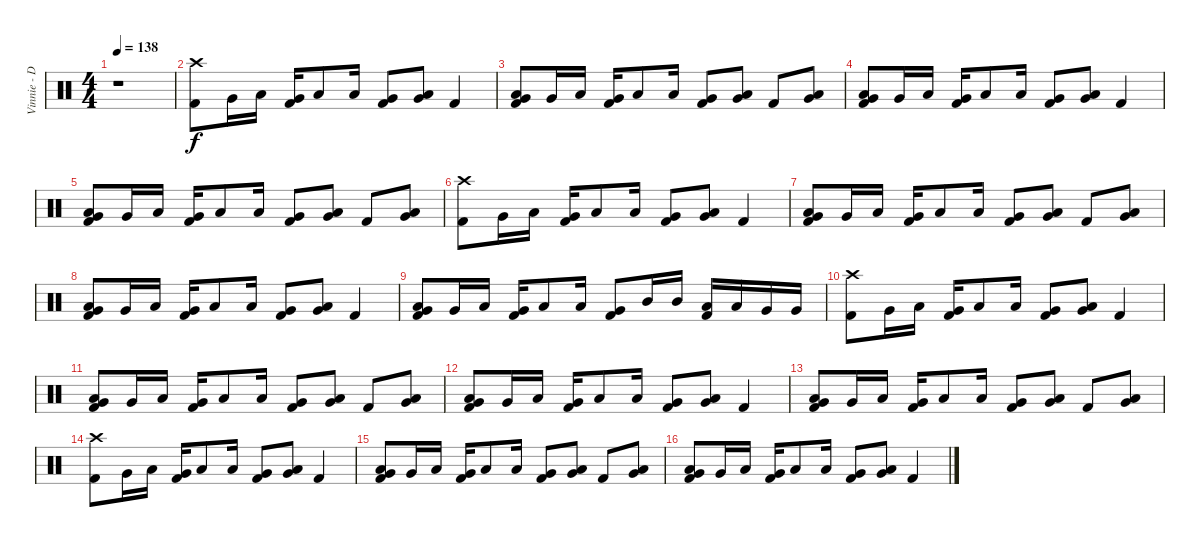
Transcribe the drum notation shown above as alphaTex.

\track ("Vinnie - Drums" "Vinnie - D") {instrument percussion}
\staff {score}
\articulation defaults
\ts (4 4)
\tempo 138
\clef neutral
\ks c
r.1{dy f} |
("Crash high (hit)" "Kick (hit) 2").8 "Very Low Tom (hit)".16 "Low Tom (hit)".16 ("Very Low Tom (hit)" "Kick (hit) 2").16 "Low Tom (hit)".8 "Low Tom (hit)".16 ("Very Low Tom (hit)" "Kick (hit) 2").8 ("Low Tom (hit)" "Very Low Tom (hit)").8 "Kick (hit) 2".4 |
("Low Tom (hit)" "Very Low Tom (hit)" "Kick (hit) 2").8 "Very Low Tom (hit)".16 "Low Tom (hit)".16 ("Very Low Tom (hit)" "Kick (hit) 2").16 "Low Tom (hit)".8 "Low Tom (hit)".16 ("Very Low Tom (hit)" "Kick (hit) 2").8 ("Low Tom (hit)" "Very Low Tom (hit)").8 "Kick (hit) 2".8 ("Low Tom (hit)" "Very Low Tom (hit)").8 |
("Low Tom (hit)" "Very Low Tom (hit)" "Kick (hit) 2").8 "Very Low Tom (hit)".16 "Low Tom (hit)".16 ("Very Low Tom (hit)" "Kick (hit) 2").16 "Low Tom (hit)".8 "Low Tom (hit)".16 ("Very Low Tom (hit)" "Kick (hit) 2").8 ("Low Tom (hit)" "Very Low Tom (hit)").8 "Kick (hit) 2".4 |
("Low Tom (hit)" "Very Low Tom (hit)" "Kick (hit) 2").8 "Very Low Tom (hit)".16 "Low Tom (hit)".16 ("Very Low Tom (hit)" "Kick (hit) 2").16 "Low Tom (hit)".8 "Low Tom (hit)".16 ("Very Low Tom (hit)" "Kick (hit) 2").8 ("Low Tom (hit)" "Very Low Tom (hit)").8 "Kick (hit) 2".8 ("Low Tom (hit)" "Very Low Tom (hit)").8 |
("Crash high (hit)" "Kick (hit) 2").8 "Very Low Tom (hit)".16 "Low Tom (hit)".16 ("Very Low Tom (hit)" "Kick (hit) 2").16 "Low Tom (hit)".8 "Low Tom (hit)".16 ("Very Low Tom (hit)" "Kick (hit) 2").8 ("Low Tom (hit)" "Very Low Tom (hit)").8 "Kick (hit) 2".4 |
("Low Tom (hit)" "Very Low Tom (hit)" "Kick (hit) 2").8 "Very Low Tom (hit)".16 "Low Tom (hit)".16 ("Very Low Tom (hit)" "Kick (hit) 2").16 "Low Tom (hit)".8 "Low Tom (hit)".16 ("Very Low Tom (hit)" "Kick (hit) 2").8 ("Low Tom (hit)" "Very Low Tom (hit)").8 "Kick (hit) 2".8 ("Low Tom (hit)" "Very Low Tom (hit)").8 |
("Low Tom (hit)" "Very Low Tom (hit)" "Kick (hit) 2").8 "Very Low Tom (hit)".16 "Low Tom (hit)".16 ("Very Low Tom (hit)" "Kick (hit) 2").16 "Low Tom (hit)".8 "Low Tom (hit)".16 ("Very Low Tom (hit)" "Kick (hit) 2").8 ("Low Tom (hit)" "Very Low Tom (hit)").8 "Kick (hit) 2".4 |
("Low Tom (hit)" "Very Low Tom (hit)" "Kick (hit) 2").8 "Very Low Tom (hit)".16 "Low Tom (hit)".16 ("Very Low Tom (hit)" "Kick (hit) 2").16 "Low Tom (hit)".8 "Low Tom (hit)".16 ("Very Low Tom (hit)" "Kick (hit) 2").8 "Mid Tom (hit)".16 "Mid Tom (hit)".16 ("Low Tom (hit)" "Kick (hit) 2").16 "Low Tom (hit)".16 "Very Low Tom (hit)".16 "Very Low Tom (hit)".16 |
("Crash high (hit)" "Kick (hit) 2").8 "Very Low Tom (hit)".16 "Low Tom (hit)".16 ("Very Low Tom (hit)" "Kick (hit) 2").16 "Low Tom (hit)".8 "Low Tom (hit)".16 ("Very Low Tom (hit)" "Kick (hit) 2").8 ("Low Tom (hit)" "Very Low Tom (hit)").8 "Kick (hit) 2".4 |
("Low Tom (hit)" "Very Low Tom (hit)" "Kick (hit) 2").8 "Very Low Tom (hit)".16 "Low Tom (hit)".16 ("Very Low Tom (hit)" "Kick (hit) 2").16 "Low Tom (hit)".8 "Low Tom (hit)".16 ("Very Low Tom (hit)" "Kick (hit) 2").8 ("Low Tom (hit)" "Very Low Tom (hit)").8 "Kick (hit) 2".8 ("Low Tom (hit)" "Very Low Tom (hit)").8 |
("Low Tom (hit)" "Very Low Tom (hit)" "Kick (hit) 2").8 "Very Low Tom (hit)".16 "Low Tom (hit)".16 ("Very Low Tom (hit)" "Kick (hit) 2").16 "Low Tom (hit)".8 "Low Tom (hit)".16 ("Very Low Tom (hit)" "Kick (hit) 2").8 ("Low Tom (hit)" "Very Low Tom (hit)").8 "Kick (hit) 2".4 |
("Low Tom (hit)" "Very Low Tom (hit)" "Kick (hit) 2").8 "Very Low Tom (hit)".16 "Low Tom (hit)".16 ("Very Low Tom (hit)" "Kick (hit) 2").16 "Low Tom (hit)".8 "Low Tom (hit)".16 ("Very Low Tom (hit)" "Kick (hit) 2").8 ("Low Tom (hit)" "Very Low Tom (hit)").8 "Kick (hit) 2".8 ("Low Tom (hit)" "Very Low Tom (hit)").8 |
("Crash high (hit)" "Kick (hit) 2").8 "Very Low Tom (hit)".16 "Low Tom (hit)".16 ("Very Low Tom (hit)" "Kick (hit) 2").16 "Low Tom (hit)".8 "Low Tom (hit)".16 ("Very Low Tom (hit)" "Kick (hit) 2").8 ("Low Tom (hit)" "Very Low Tom (hit)").8 "Kick (hit) 2".4 |
("Low Tom (hit)" "Very Low Tom (hit)" "Kick (hit) 2").8 "Very Low Tom (hit)".16 "Low Tom (hit)".16 ("Very Low Tom (hit)" "Kick (hit) 2").16 "Low Tom (hit)".8 "Low Tom (hit)".16 ("Very Low Tom (hit)" "Kick (hit) 2").8 ("Low Tom (hit)" "Very Low Tom (hit)").8 "Kick (hit) 2".8 ("Low Tom (hit)" "Very Low Tom (hit)").8 |
("Low Tom (hit)" "Very Low Tom (hit)" "Kick (hit) 2").8 "Very Low Tom (hit)".16 "Low Tom (hit)".16 ("Very Low Tom (hit)" "Kick (hit) 2").16 "Low Tom (hit)".8 "Low Tom (hit)".16 ("Very Low Tom (hit)" "Kick (hit) 2").8 ("Low Tom (hit)" "Very Low Tom (hit)").8 "Kick (hit) 2".4
